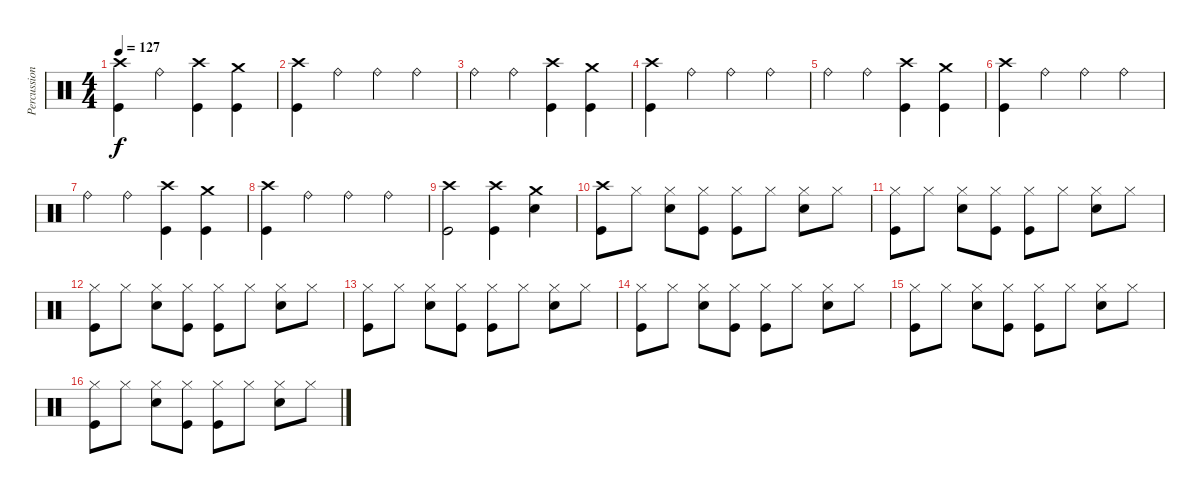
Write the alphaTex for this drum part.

\track ("Percussions" "Percussion") {instrument percussion}
\staff {score}
\articulation defaults
\ts (4 4)
\tempo 127
\clef neutral
\ks c
("Crash high (hit)" "Kick (hit)").4{dy f} "Ride (bell)".4 ("Crash high (hit)" "Kick (hit)").4 ("Crash medium (hit)" "Kick (hit)").4 |
("Crash high (hit)" "Kick (hit)").4 "Ride (bell)".4 "Ride (bell)".4 "Ride (bell)".4 |
"Ride (bell)".4 "Ride (bell)".4 ("Crash high (hit)" "Kick (hit)").4 ("Crash medium (hit)" "Kick (hit)").4 |
("Crash high (hit)" "Kick (hit)").4 "Ride (bell)".4 "Ride (bell)".4 "Ride (bell)".4 |
"Ride (bell)".4 "Ride (bell)".4 ("Crash high (hit)" "Kick (hit)").4 ("Crash medium (hit)" "Kick (hit)").4 |
("Crash high (hit)" "Kick (hit)").4 "Ride (bell)".4 "Ride (bell)".4 "Ride (bell)".4 |
"Ride (bell)".4 "Ride (bell)".4 ("Crash high (hit)" "Kick (hit)").4 ("Crash medium (hit)" "Kick (hit)").4 |
("Crash high (hit)" "Kick (hit)").4 "Ride (bell)".4 "Ride (bell)".4 "Ride (bell)".4 |
("Crash high (hit)" "Kick (hit)").2 ("Crash high (hit)" "Kick (hit)").4 ("Crash medium (hit)" "Snare (hit) 2").4 |
("Crash high (hit)" "Kick (hit)").8 "Hi-Hat (closed)".8 ("Hi-Hat (closed)" "Snare (hit) 2").8 ("Hi-Hat (closed)" "Kick (hit)").8 ("Hi-Hat (closed)" "Kick (hit)").8 "Hi-Hat (closed)".8 ("Hi-Hat (closed)" "Snare (hit) 2").8 "Hi-Hat (closed)".8 |
("Hi-Hat (closed)" "Kick (hit)").8 "Hi-Hat (closed)".8 ("Hi-Hat (closed)" "Snare (hit) 2").8 ("Hi-Hat (closed)" "Kick (hit)").8 ("Hi-Hat (closed)" "Kick (hit)").8 "Hi-Hat (closed)".8 ("Hi-Hat (closed)" "Snare (hit) 2").8 "Hi-Hat (closed)".8 |
("Hi-Hat (closed)" "Kick (hit)").8 "Hi-Hat (closed)".8 ("Hi-Hat (closed)" "Snare (hit) 2").8 ("Hi-Hat (closed)" "Kick (hit)").8 ("Hi-Hat (closed)" "Kick (hit)").8 "Hi-Hat (closed)".8 ("Hi-Hat (closed)" "Snare (hit) 2").8 "Hi-Hat (closed)".8 |
("Hi-Hat (closed)" "Kick (hit)").8 "Hi-Hat (closed)".8 ("Hi-Hat (closed)" "Snare (hit) 2").8 ("Hi-Hat (closed)" "Kick (hit)").8 ("Hi-Hat (closed)" "Kick (hit)").8 "Hi-Hat (closed)".8 ("Hi-Hat (closed)" "Snare (hit) 2").8 "Hi-Hat (closed)".8 |
("Hi-Hat (closed)" "Kick (hit)").8 "Hi-Hat (closed)".8 ("Hi-Hat (closed)" "Snare (hit) 2").8 ("Hi-Hat (closed)" "Kick (hit)").8 ("Hi-Hat (closed)" "Kick (hit)").8 "Hi-Hat (closed)".8 ("Hi-Hat (closed)" "Snare (hit) 2").8 "Hi-Hat (closed)".8 |
("Hi-Hat (closed)" "Kick (hit)").8 "Hi-Hat (closed)".8 ("Hi-Hat (closed)" "Snare (hit) 2").8 ("Hi-Hat (closed)" "Kick (hit)").8 ("Hi-Hat (closed)" "Kick (hit)").8 "Hi-Hat (closed)".8 ("Hi-Hat (closed)" "Snare (hit) 2").8 "Hi-Hat (closed)".8 |
("Hi-Hat (closed)" "Kick (hit)").8 "Hi-Hat (closed)".8 ("Hi-Hat (closed)" "Snare (hit) 2").8 ("Hi-Hat (closed)" "Kick (hit)").8 ("Hi-Hat (closed)" "Kick (hit)").8 "Hi-Hat (closed)".8 ("Hi-Hat (closed)" "Snare (hit) 2").8 "Hi-Hat (closed)".8
